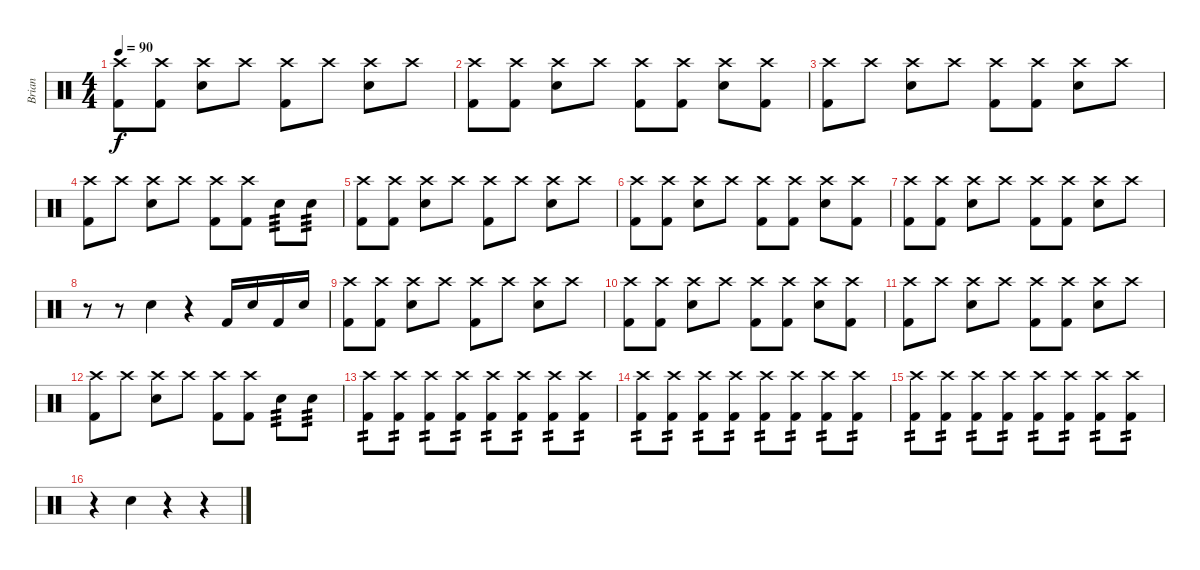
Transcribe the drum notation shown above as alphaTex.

\track ("Brian" "Brian") {instrument percussion}
\staff {score}
\articulation defaults
\ts (4 4)
\tempo 90
\clef neutral
\ks c
("Crash high (hit)" "Kick (hit) 2").8{dy f} ("Crash high (hit)" "Kick (hit) 2").8 ("Crash high (hit)" "Electric Snare (hit)").8 "Crash high (hit)".8 ("Crash high (hit)" "Kick (hit) 2").8 "Crash high (hit)".8 ("Crash high (hit)" "Electric Snare (hit)").8 "Crash high (hit)".8 |
("Crash high (hit)" "Kick (hit) 2").8 ("Crash high (hit)" "Kick (hit) 2").8 ("Crash high (hit)" "Electric Snare (hit)").8 "Crash high (hit)".8 ("Crash high (hit)" "Kick (hit) 2").8 ("Crash high (hit)" "Kick (hit) 2").8 ("Crash high (hit)" "Electric Snare (hit)").8 ("Crash high (hit)" "Kick (hit) 2").8 |
("Crash high (hit)" "Kick (hit) 2").8 "Crash high (hit)".8 ("Crash high (hit)" "Electric Snare (hit)").8 "Crash high (hit)".8 ("Crash high (hit)" "Kick (hit) 2").8 ("Crash high (hit)" "Kick (hit) 2").8 ("Crash high (hit)" "Electric Snare (hit)").8 "Crash high (hit)".8 |
("Crash high (hit)" "Kick (hit) 2").8 "Crash high (hit)".8 ("Crash high (hit)" "Electric Snare (hit)").8 "Crash high (hit)".8 ("Crash high (hit)" "Kick (hit) 2").8 ("Crash high (hit)" "Kick (hit) 2").8 "Electric Snare (hit)".8{tp 3} "Electric Snare (hit)".8{tp 3} |
("Crash high (hit)" "Kick (hit) 2").8 ("Crash high (hit)" "Kick (hit) 2").8 ("Crash high (hit)" "Electric Snare (hit)").8 "Crash high (hit)".8 ("Crash high (hit)" "Kick (hit) 2").8 "Crash high (hit)".8 ("Crash high (hit)" "Electric Snare (hit)").8 "Crash high (hit)".8 |
("Crash high (hit)" "Kick (hit) 2").8 ("Crash high (hit)" "Kick (hit) 2").8 ("Crash high (hit)" "Electric Snare (hit)").8 "Crash high (hit)".8 ("Crash high (hit)" "Kick (hit) 2").8 ("Crash high (hit)" "Kick (hit) 2").8 ("Crash high (hit)" "Electric Snare (hit)").8 ("Crash high (hit)" "Kick (hit) 2").8 |
("Crash high (hit)" "Kick (hit) 2").8 ("Crash high (hit)" "Kick (hit) 2").8 ("Crash high (hit)" "Electric Snare (hit)").8 "Crash high (hit)".8 ("Crash high (hit)" "Kick (hit) 2").8 ("Crash high (hit)" "Kick (hit) 2").8 ("Crash high (hit)" "Electric Snare (hit)").8 "Crash high (hit)".8 |
r.8 r.8 "Electric Snare (hit)".4 r.4 "Kick (hit) 2".16 "Electric Snare (hit)".16 "Kick (hit) 2".16 "Electric Snare (hit)".16 |
("Crash high (hit)" "Kick (hit) 2").8 ("Crash high (hit)" "Kick (hit) 2").8 ("Crash high (hit)" "Electric Snare (hit)").8 "Crash high (hit)".8 ("Crash high (hit)" "Kick (hit) 2").8 "Crash high (hit)".8 ("Crash high (hit)" "Electric Snare (hit)").8 "Crash high (hit)".8 |
("Crash high (hit)" "Kick (hit) 2").8 ("Crash high (hit)" "Kick (hit) 2").8 ("Crash high (hit)" "Electric Snare (hit)").8 "Crash high (hit)".8 ("Crash high (hit)" "Kick (hit) 2").8 ("Crash high (hit)" "Kick (hit) 2").8 ("Crash high (hit)" "Electric Snare (hit)").8 ("Crash high (hit)" "Kick (hit) 2").8 |
("Crash high (hit)" "Kick (hit) 2").8 "Crash high (hit)".8 ("Crash high (hit)" "Electric Snare (hit)").8 "Crash high (hit)".8 ("Crash high (hit)" "Kick (hit) 2").8 ("Crash high (hit)" "Kick (hit) 2").8 ("Crash high (hit)" "Electric Snare (hit)").8 "Crash high (hit)".8 |
("Crash high (hit)" "Kick (hit) 2").8 "Crash high (hit)".8 ("Crash high (hit)" "Electric Snare (hit)").8 "Crash high (hit)".8 ("Crash high (hit)" "Kick (hit) 2").8 ("Crash high (hit)" "Kick (hit) 2").8 "Electric Snare (hit)".8{tp 3} "Electric Snare (hit)".8{tp 3} |
("Crash high (hit)" "Kick (hit) 2").8{tp 2} ("Crash high (hit)" "Kick (hit) 2").8{tp 2} ("Crash high (hit)" "Kick (hit) 2").8{tp 2} ("Crash high (hit)" "Kick (hit) 2").8{tp 2} ("Crash high (hit)" "Kick (hit) 2").8{tp 2} ("Crash high (hit)" "Kick (hit) 2").8{tp 2} ("Crash high (hit)" "Kick (hit) 2").8{tp 2} ("Crash high (hit)" "Kick (hit) 2").8{tp 2} |
("Crash high (hit)" "Kick (hit) 2").8{tp 2} ("Crash high (hit)" "Kick (hit) 2").8{tp 2} ("Crash high (hit)" "Kick (hit) 2").8{tp 2} ("Crash high (hit)" "Kick (hit) 2").8{tp 2} ("Crash high (hit)" "Kick (hit) 2").8{tp 2} ("Crash high (hit)" "Kick (hit) 2").8{tp 2} ("Crash high (hit)" "Kick (hit) 2").8{tp 2} ("Crash high (hit)" "Kick (hit) 2").8{tp 2} |
("Crash high (hit)" "Kick (hit) 2").8{tp 2} ("Crash high (hit)" "Kick (hit) 2").8{tp 2} ("Crash high (hit)" "Kick (hit) 2").8{tp 2} ("Crash high (hit)" "Kick (hit) 2").8{tp 2} ("Crash high (hit)" "Kick (hit) 2").8{tp 2} ("Crash high (hit)" "Kick (hit) 2").8{tp 2} ("Crash high (hit)" "Kick (hit) 2").8{tp 2} ("Crash high (hit)" "Kick (hit) 2").8{tp 2} |
r.4 "Electric Snare (hit)".4 r.4 r.4
